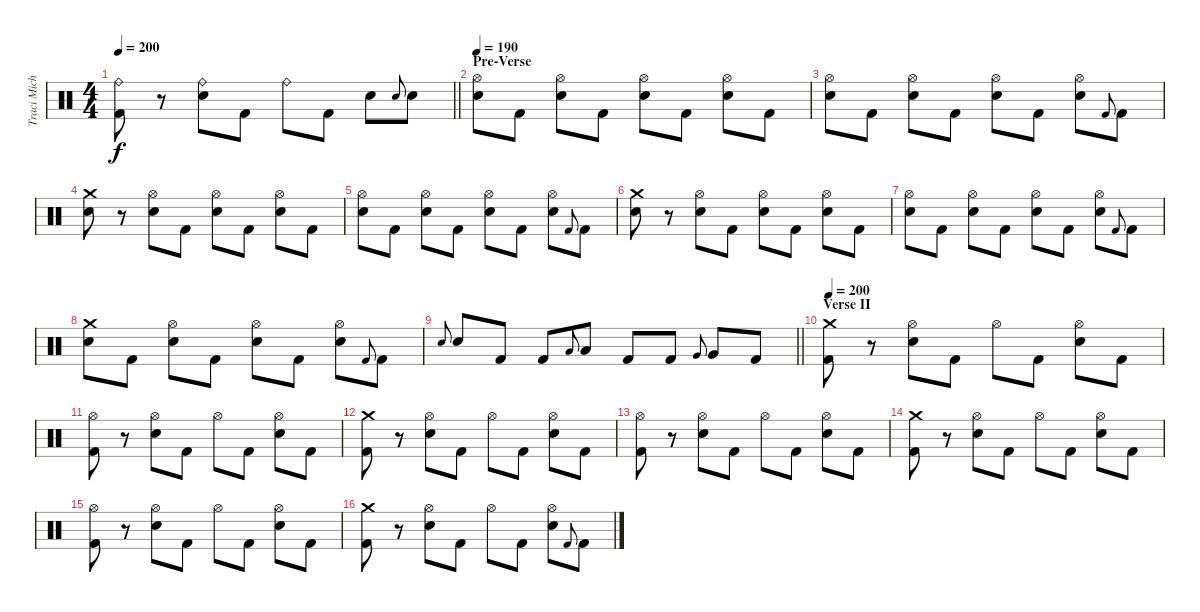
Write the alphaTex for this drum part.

\track ("Traci Michaelz" "Traci Mich") {instrument percussion}
\staff {score}
\articulation defaults
\ts (4 4)
\tempo 200
\clef neutral
\barLineRight lightlight
\ks c
("Ride (bell)" "Kick (hit) 2").8{dy f} r.8 ("Ride (bell)" "Snare (hit) 2").8 "Kick (hit) 2".8 "Ride (bell)".8 "Kick (hit) 2".8 "Snare (hit) 2".8 "Snare (hit) 2".8{gr onbeat} "Snare (hit) 2".8 |
\section ("" "Pre-Verse")
\tempo 190
("Hi-Hat (open)" "Snare (hit) 2").8 "Kick (hit) 2".8 ("Hi-Hat (open)" "Snare (hit) 2").8 "Kick (hit) 2".8 ("Hi-Hat (open)" "Snare (hit) 2").8 "Kick (hit) 2".8 ("Hi-Hat (open)" "Snare (hit) 2").8 "Kick (hit) 2".8 |
("Hi-Hat (open)" "Snare (hit) 2").8 "Kick (hit) 2".8 ("Hi-Hat (open)" "Snare (hit) 2").8 "Kick (hit) 2".8 ("Hi-Hat (open)" "Snare (hit) 2").8 "Kick (hit) 2".8 ("Hi-Hat (open)" "Snare (hit) 2").8 "Kick (hit) 2".8{gr onbeat} "Kick (hit) 2".8 |
("Crash medium (hit)" "Snare (hit) 2").8 r.8 ("Hi-Hat (open)" "Snare (hit) 2").8 "Kick (hit) 2".8 ("Hi-Hat (open)" "Snare (hit) 2").8 "Kick (hit) 2".8 ("Hi-Hat (open)" "Snare (hit) 2").8 "Kick (hit) 2".8 |
("Hi-Hat (open)" "Snare (hit) 2").8 "Kick (hit) 2".8 ("Hi-Hat (open)" "Snare (hit) 2").8 "Kick (hit) 2".8 ("Hi-Hat (open)" "Snare (hit) 2").8 "Kick (hit) 2".8 ("Hi-Hat (open)" "Snare (hit) 2").8 "Kick (hit) 2".8{gr onbeat} "Kick (hit) 2".8 |
("Crash medium (hit)" "Snare (hit) 2").8 r.8 ("Hi-Hat (open)" "Snare (hit) 2").8 "Kick (hit) 2".8 ("Hi-Hat (open)" "Snare (hit) 2").8 "Kick (hit) 2".8 ("Hi-Hat (open)" "Snare (hit) 2").8 "Kick (hit) 2".8 |
("Hi-Hat (open)" "Snare (hit) 2").8 "Kick (hit) 2".8 ("Hi-Hat (open)" "Snare (hit) 2").8 "Kick (hit) 2".8 ("Hi-Hat (open)" "Snare (hit) 2").8 "Kick (hit) 2".8 ("Hi-Hat (open)" "Snare (hit) 2").8 "Kick (hit) 2".8{gr onbeat} "Kick (hit) 2".8 |
("Crash medium (hit)" "Snare (hit) 2").8 "Kick (hit) 2".8 ("Hi-Hat (open)" "Snare (hit) 2").8 "Kick (hit) 2".8 ("Hi-Hat (open)" "Snare (hit) 2").8 "Kick (hit) 2".8 ("Hi-Hat (open)" "Snare (hit) 2").8 "Kick (hit) 2".8{gr onbeat} "Kick (hit) 2".8 |
\barLineRight lightlight "Snare (hit) 2".8{gr onbeat} "Snare (hit) 2".8 "Kick (hit) 2".8 "Kick (hit) 2".8 "Low Tom (hit)".8{gr onbeat} "Low Tom (hit)".8 "Kick (hit) 2".8 "Kick (hit) 2".8 "Very Low Tom (hit)".8{gr onbeat} "Very Low Tom (hit)".8 "Kick (hit) 2".8
|
\section ("" "Verse II")
\tempo 200
("Crash medium (hit)" "Kick (hit) 2").8 r.8 ("Hi-Hat (open)" "Snare (hit) 2").8 "Kick (hit) 2".8 "Hi-Hat (open)".8 "Kick (hit) 2".8 ("Hi-Hat (open)" "Snare (hit) 2").8 "Kick (hit) 2".8 |
("Hi-Hat (open)" "Kick (hit) 2").8 r.8 ("Hi-Hat (open)" "Snare (hit) 2").8 "Kick (hit) 2".8 "Hi-Hat (open)".8 "Kick (hit) 2".8 ("Hi-Hat (open)" "Snare (hit) 2").8 "Kick (hit) 2".8 |
("Crash medium (hit)" "Kick (hit) 2").8 r.8 ("Hi-Hat (open)" "Snare (hit) 2").8 "Kick (hit) 2".8 "Hi-Hat (open)".8 "Kick (hit) 2".8 ("Hi-Hat (open)" "Snare (hit) 2").8 "Kick (hit) 2".8 |
("Hi-Hat (open)" "Kick (hit) 2").8 r.8 ("Hi-Hat (open)" "Snare (hit) 2").8 "Kick (hit) 2".8 "Hi-Hat (open)".8 "Kick (hit) 2".8 ("Hi-Hat (open)" "Snare (hit) 2").8 "Kick (hit) 2".8 |
("Crash medium (hit)" "Kick (hit) 2").8 r.8 ("Hi-Hat (open)" "Snare (hit) 2").8 "Kick (hit) 2".8 "Hi-Hat (open)".8 "Kick (hit) 2".8 ("Hi-Hat (open)" "Snare (hit) 2").8 "Kick (hit) 2".8 |
("Hi-Hat (open)" "Kick (hit) 2").8 r.8 ("Hi-Hat (open)" "Snare (hit) 2").8 "Kick (hit) 2".8 "Hi-Hat (open)".8 "Kick (hit) 2".8 ("Hi-Hat (open)" "Snare (hit) 2").8 "Kick (hit) 2".8 |
("Crash medium (hit)" "Kick (hit) 2").8 r.8 ("Hi-Hat (open)" "Snare (hit) 2").8 "Kick (hit) 2".8 "Hi-Hat (open)".8 "Kick (hit) 2".8 ("Hi-Hat (open)" "Snare (hit) 2").8 "Kick (hit) 2".8{gr onbeat} "Kick (hit) 2".8
